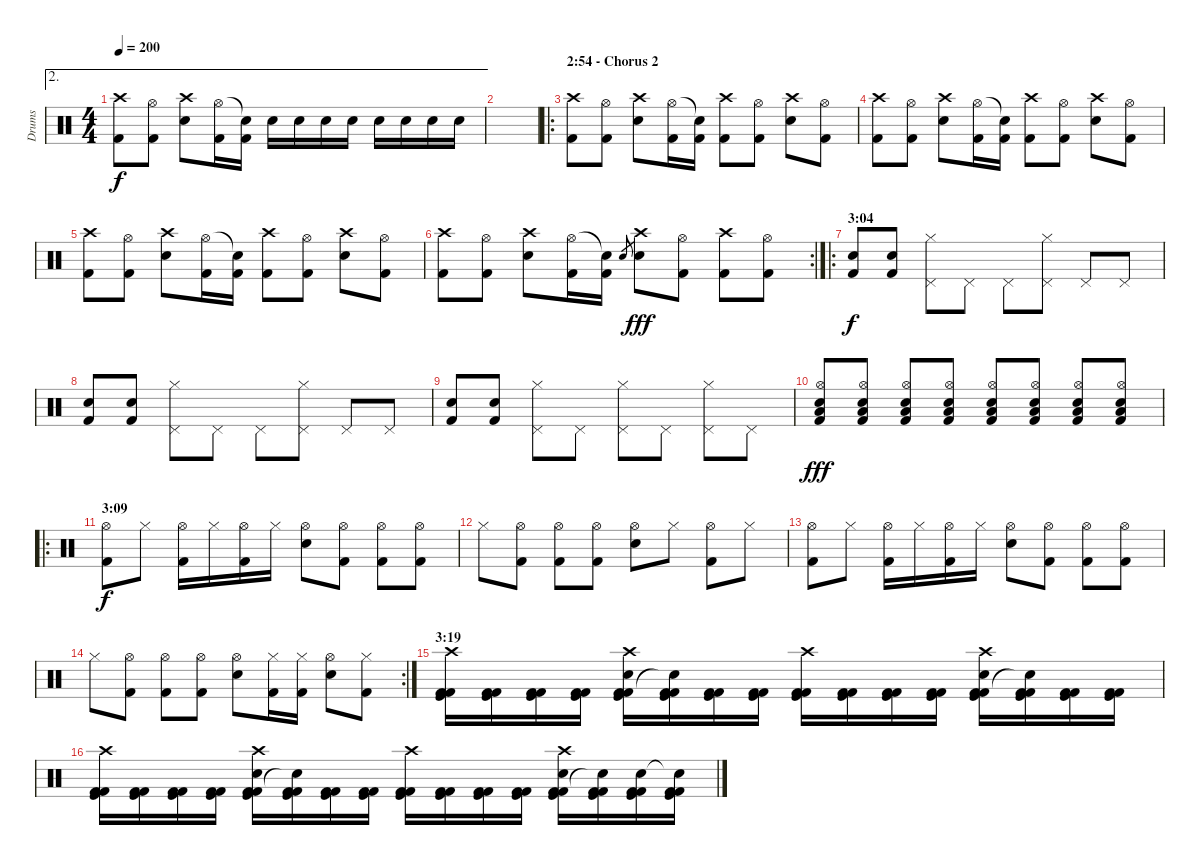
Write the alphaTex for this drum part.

\track ("Drums" "Drums") {instrument percussion}
\staff {score}
\articulation defaults
\ae 2
\ts (4 4)
\tempo 200
\clef neutral
\ks c
("Crash high (hit)" "Kick (hit) 2").8{dy f} ("Hi-Hat (open)" "Kick (hit) 2").8 ("Crash high (hit)" "Electric Snare (hit)").8 ("Hi-Hat (open)" "Kick (hit) 2").16 ("Snare (hit)"{t} "Kick (hit) 2").16 "Electric Snare (hit)".16 "Electric Snare (hit)".16 "Electric Snare (hit)".16 "Electric Snare (hit)".16 "Electric Snare (hit)".16 "Electric Snare (hit)".16 "Electric Snare (hit)".16 "Electric Snare (hit)".16 |
|
\ro
\section ("" "2:54 - Chorus 2")
("Crash high (hit)" "Kick (hit) 2").8 ("Hi-Hat (open)" "Kick (hit) 2").8 ("Crash high (hit)" "Electric Snare (hit)").8 ("Hi-Hat (open)" "Kick (hit) 2").16 ("Snare (hit)"{t} "Kick (hit) 2").16 ("Crash high (hit)" "Kick (hit) 2").8 ("Hi-Hat (open)" "Kick (hit) 2").8 ("Crash high (hit)" "Electric Snare (hit)").8 ("Hi-Hat (open)" "Kick (hit) 2").8 |
("Crash high (hit)" "Kick (hit) 2").8 ("Hi-Hat (open)" "Kick (hit) 2").8 ("Crash high (hit)" "Electric Snare (hit)").8 ("Hi-Hat (open)" "Kick (hit) 2").16 ("Snare (hit)"{t} "Kick (hit) 2").16 ("Crash high (hit)" "Kick (hit) 2").8 ("Hi-Hat (open)" "Kick (hit) 2").8 ("Crash high (hit)" "Electric Snare (hit)").8 ("Hi-Hat (open)" "Kick (hit) 2").8 |
("Crash high (hit)" "Kick (hit) 2").8 ("Hi-Hat (open)" "Kick (hit) 2").8 ("Crash high (hit)" "Electric Snare (hit)").8 ("Hi-Hat (open)" "Kick (hit) 2").16 ("Snare (hit)"{t} "Kick (hit) 2").16 ("Crash high (hit)" "Kick (hit) 2").8 ("Hi-Hat (open)" "Kick (hit) 2").8 ("Crash high (hit)" "Electric Snare (hit)").8 ("Hi-Hat (open)" "Kick (hit) 2").8 |
\rc 2
("Crash high (hit)" "Kick (hit) 2").8 ("Hi-Hat (open)" "Kick (hit) 2").8 ("Crash high (hit)" "Electric Snare (hit)").8 ("Hi-Hat (open)" "Kick (hit) 2").16 ("Snare (hit)"{t} "Kick (hit) 2").16 "Electric Snare (hit)".8{gr} ("Crash high (hit)" "Electric Snare (hit)").8{dy fff} ("Hi-Hat (open)" "Kick (hit) 2").8 ("Crash high (hit)" "Kick (hit) 2").8 ("Hi-Hat (open)" "Kick (hit) 2").8 |
\ro
\section ("" "3:04")
("Electric Snare (hit)" "Kick (hit) 2").8{dy f} ("Electric Snare (hit)" "Kick (hit) 2").8 ("Hi-Hat (closed)" "Pedal Hi-Hat (hit)").8 "Pedal Hi-Hat (hit)".8 "Pedal Hi-Hat (hit)".8 ("Hi-Hat (closed)" "Pedal Hi-Hat (hit)").8 "Pedal Hi-Hat (hit)".8 "Pedal Hi-Hat (hit)".8 |
("Electric Snare (hit)" "Kick (hit) 2").8 ("Electric Snare (hit)" "Kick (hit) 2").8 ("Hi-Hat (closed)" "Pedal Hi-Hat (hit)").8 "Pedal Hi-Hat (hit)".8 "Pedal Hi-Hat (hit)".8 ("Hi-Hat (closed)" "Pedal Hi-Hat (hit)").8 "Pedal Hi-Hat (hit)".8 "Pedal Hi-Hat (hit)".8 |
("Electric Snare (hit)" "Kick (hit) 2").8 ("Electric Snare (hit)" "Kick (hit) 2").8 ("Hi-Hat (closed)" "Pedal Hi-Hat (hit)").8 "Pedal Hi-Hat (hit)".8 ("Hi-Hat (closed)" "Pedal Hi-Hat (hit)").8 "Pedal Hi-Hat (hit)".8 ("Hi-Hat (closed)" "Pedal Hi-Hat (hit)").8 "Pedal Hi-Hat (hit)".8 |
("Hi-Hat (open)" "Low Floor Tom (hit)" "Electric Snare (hit)" "Kick (hit) 2").8{dy fff} ("Hi-Hat (open)" "Low Floor Tom (hit)" "Electric Snare (hit)" "Kick (hit) 2").8 ("Hi-Hat (open)" "Low Floor Tom (hit)" "Electric Snare (hit)" "Kick (hit) 2").8 ("Hi-Hat (open)" "Low Floor Tom (hit)" "Electric Snare (hit)" "Kick (hit) 2").8 ("Hi-Hat (open)" "Low Floor Tom (hit)" "Electric Snare (hit)" "Kick (hit) 2").8 ("Hi-Hat (open)" "Low Floor Tom (hit)" "Electric Snare (hit)" "Kick (hit) 2").8 ("Hi-Hat (open)" "Low Floor Tom (hit)" "Electric Snare (hit)" "Kick (hit) 2").8 ("Hi-Hat (open)" "Low Floor Tom (hit)" "Electric Snare (hit)" "Kick (hit) 2").8 |
\ro
\section ("" "3:09")
("Hi-Hat (open)" "Kick (hit) 2").8{dy f} "Hi-Hat (closed)".8 ("Hi-Hat (open)" "Kick (hit) 2").16 "Hi-Hat (closed)".16 ("Hi-Hat (open)" "Kick (hit) 2").16 "Hi-Hat (closed)".16 ("Hi-Hat (open)" "Electric Snare (hit)").8 ("Hi-Hat (open)" "Kick (hit) 2").8 ("Hi-Hat (open)" "Kick (hit) 2").8 ("Hi-Hat (open)" "Kick (hit) 2").8 |
"Hi-Hat (closed)".8 ("Hi-Hat (open)" "Kick (hit) 2").8 ("Hi-Hat (open)" "Kick (hit) 2").8 ("Hi-Hat (open)" "Kick (hit) 2").8 ("Hi-Hat (open)" "Electric Snare (hit)").8 "Hi-Hat (closed)".8 ("Hi-Hat (open)" "Kick (hit) 2").8 "Hi-Hat (closed)".8 |
("Hi-Hat (open)" "Kick (hit) 2").8 "Hi-Hat (closed)".8 ("Hi-Hat (open)" "Kick (hit) 2").16 "Hi-Hat (closed)".16 ("Hi-Hat (open)" "Kick (hit) 2").16 "Hi-Hat (closed)".16 ("Hi-Hat (open)" "Electric Snare (hit)").8 ("Hi-Hat (open)" "Kick (hit) 2").8 ("Hi-Hat (open)" "Kick (hit) 2").8 ("Hi-Hat (open)" "Kick (hit) 2").8 |
\rc 2 "Hi-Hat (closed)".8
("Hi-Hat (open)" "Kick (hit) 2").8 ("Hi-Hat (open)" "Kick (hit) 2").8 ("Hi-Hat (open)" "Kick (hit) 2").8 ("Hi-Hat (open)" "Electric Snare (hit)").8 ("Hi-Hat (closed)" "Kick (hit) 2").16 ("Hi-Hat (closed)" "Kick (hit) 2").16 ("Hi-Hat (open)" "Electric Snare (hit)").8 ("Hi-Hat (closed)" "Kick (hit) 2").8 |
\section ("" "3:19")
("Crash high (hit)" "Kick (hit)" "Kick (hit) 2" "Kick (hit) 2").16 ("Kick (hit)" "Kick (hit) 2" "Kick (hit) 2").16 ("Kick (hit)" "Kick (hit) 2" "Kick (hit) 2").16 ("Kick (hit)" "Kick (hit) 2" "Kick (hit) 2").16 ("Crash high (hit)" "Kick (hit)" "Kick (hit) 2" "Electric Snare (hit)" "Kick (hit) 2").16 ("Kick (hit)" "Kick (hit) 2" "Snare (hit)"{t} "Kick (hit) 2").16 ("Kick (hit)" "Kick (hit) 2" "Kick (hit) 2").16 ("Kick (hit)" "Kick (hit) 2" "Kick (hit) 2").16 ("Crash high (hit)" "Kick (hit)" "Kick (hit) 2" "Kick (hit) 2").16 ("Kick (hit)" "Kick (hit) 2" "Kick (hit) 2").16 ("Kick (hit)" "Kick (hit) 2" "Kick (hit) 2").16 ("Kick (hit)" "Kick (hit) 2" "Kick (hit) 2").16 ("Crash high (hit)" "Kick (hit)" "Kick (hit) 2" "Electric Snare (hit)" "Kick (hit) 2").16 ("Kick (hit)" "Kick (hit) 2" "Snare (hit)"{t} "Kick (hit) 2").16 ("Kick (hit)" "Kick (hit) 2" "Kick (hit) 2").16 ("Kick (hit)" "Kick (hit) 2" "Kick (hit) 2").16 |
("Crash high (hit)" "Kick (hit)" "Kick (hit) 2" "Kick (hit) 2").16 ("Kick (hit)" "Kick (hit) 2" "Kick (hit) 2").16 ("Kick (hit)" "Kick (hit) 2" "Kick (hit) 2").16 ("Kick (hit)" "Kick (hit) 2" "Kick (hit) 2").16 ("Crash high (hit)" "Kick (hit)" "Kick (hit) 2" "Electric Snare (hit)" "Kick (hit) 2").16 ("Kick (hit)" "Kick (hit) 2" "Snare (hit)"{t} "Kick (hit) 2").16 ("Kick (hit)" "Kick (hit) 2" "Kick (hit) 2").16 ("Kick (hit)" "Kick (hit) 2" "Kick (hit) 2").16 ("Crash high (hit)" "Kick (hit)" "Kick (hit) 2" "Kick (hit) 2").16 ("Kick (hit)" "Kick (hit) 2" "Kick (hit) 2").16 ("Kick (hit)" "Kick (hit) 2" "Kick (hit) 2").16 ("Kick (hit)" "Kick (hit) 2" "Kick (hit) 2").16 ("Crash high (hit)" "Kick (hit)" "Kick (hit) 2" "Electric Snare (hit)" "Kick (hit) 2").16 ("Kick (hit)" "Kick (hit) 2" "Snare (hit)"{t} "Kick (hit) 2").16 ("Kick (hit)" "Kick (hit) 2" "Electric Snare (hit)" "Kick (hit) 2").16 ("Kick (hit)" "Kick (hit) 2" "Snare (hit)"{t} "Kick (hit) 2").16
